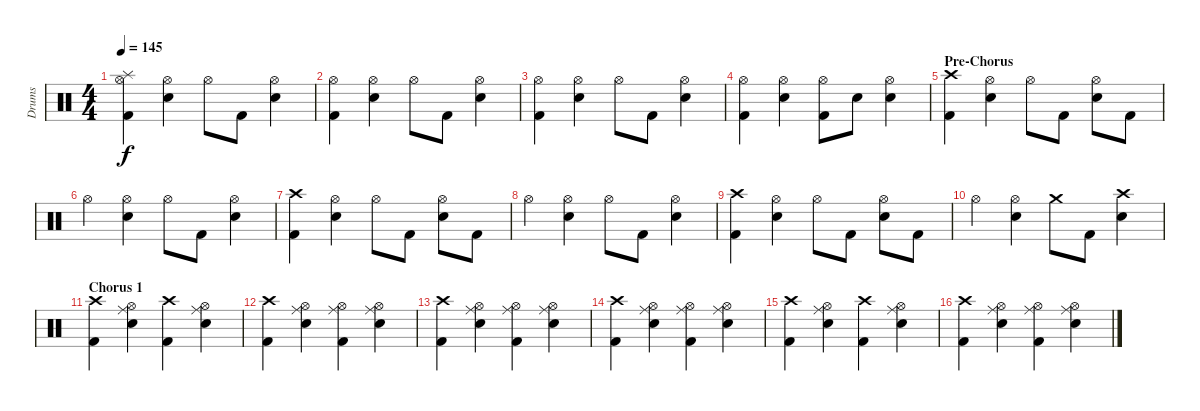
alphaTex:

\track ("Drums" "Drums") {instrument percussion}
\staff {score}
\articulation defaults
\ts (4 4)
\tempo 145
\clef neutral
\ks c
("Splash (hit)" "Hi-Hat (open)" "Kick (hit) 2").4{dy f} ("Hi-Hat (open)" "Snare (hit) 2").4 "Hi-Hat (open)".8 "Kick (hit) 2".8 ("Hi-Hat (open)" "Snare (hit) 2").4 |
("Hi-Hat (open)" "Kick (hit) 2").4 ("Hi-Hat (open)" "Snare (hit) 2").4 "Hi-Hat (open)".8 "Kick (hit) 2".8 ("Hi-Hat (open)" "Snare (hit) 2").4 |
("Hi-Hat (open)" "Kick (hit) 2").4 ("Hi-Hat (open)" "Snare (hit) 2").4 "Hi-Hat (open)".8 "Kick (hit) 2".8 ("Hi-Hat (open)" "Snare (hit) 2").4 |
("Hi-Hat (open)" "Kick (hit) 2").4 ("Hi-Hat (open)" "Snare (hit) 2").4 ("Hi-Hat (open)" "Kick (hit) 2").8 "Snare (hit) 2".8 ("Hi-Hat (open)" "Snare (hit) 2").4 |
\section ("" "Pre-Chorus")
("Crash high (hit)" "Kick (hit) 2").4 ("Hi-Hat (open)" "Snare (hit) 2").4 "Hi-Hat (open)".8 "Kick (hit) 2".8 ("Hi-Hat (open)" "Snare (hit) 2").8 "Kick (hit) 2".8 |
"Hi-Hat (open)".4 ("Hi-Hat (open)" "Snare (hit) 2").4 "Hi-Hat (open)".8 "Kick (hit) 2".8 ("Hi-Hat (open)" "Snare (hit) 2").4 |
("Crash high (hit)" "Kick (hit) 2").4 ("Hi-Hat (open)" "Snare (hit) 2").4 "Hi-Hat (open)".8 "Kick (hit) 2".8 ("Hi-Hat (open)" "Snare (hit) 2").8 "Kick (hit) 2".8 |
"Hi-Hat (open)".4 ("Hi-Hat (open)" "Snare (hit) 2").4 "Hi-Hat (open)".8 "Kick (hit) 2".8 ("Hi-Hat (open)" "Snare (hit) 2").4 |
("Crash high (hit)" "Kick (hit) 2").4 ("Hi-Hat (open)" "Snare (hit) 2").4 "Hi-Hat (open)".8 "Kick (hit) 2".8 ("Hi-Hat (open)" "Snare (hit) 2").8 "Kick (hit) 2".8 |
"Hi-Hat (open)".4 ("Hi-Hat (open)" "Snare (hit) 2").4 "Crash medium (hit)".8 "Kick (hit) 2".8 ("Crash high (hit)" "Snare (hit) 2").4 |
\section ("" "Chorus 1")
("Crash high (hit)" "Kick (hit) 2").4 ("Hi-Hat (open)" "Ride (middle)" "Snare (hit) 2").4 ("Crash high (hit)" "Kick (hit) 2").4 ("Hi-Hat (open)" "Ride (middle)" "Snare (hit) 2").4 |
("Crash high (hit)" "Kick (hit) 2").4 ("Hi-Hat (open)" "Ride (middle)" "Snare (hit) 2").4 ("Hi-Hat (open)" "Ride (middle)" "Kick (hit) 2").4 ("Hi-Hat (open)" "Ride (middle)" "Snare (hit) 2").4 |
("Crash high (hit)" "Kick (hit) 2").4 ("Hi-Hat (open)" "Ride (middle)" "Snare (hit) 2").4 ("Hi-Hat (open)" "Ride (middle)" "Kick (hit) 2").4 ("Hi-Hat (open)" "Ride (middle)" "Snare (hit) 2").4 |
("Crash high (hit)" "Kick (hit) 2").4 ("Hi-Hat (open)" "Ride (middle)" "Snare (hit) 2").4 ("Hi-Hat (open)" "Ride (middle)" "Kick (hit) 2").4 ("Hi-Hat (open)" "Ride (middle)" "Snare (hit) 2").4 |
("Crash high (hit)" "Kick (hit) 2").4 ("Hi-Hat (open)" "Ride (middle)" "Snare (hit) 2").4 ("Crash high (hit)" "Kick (hit) 2").4 ("Hi-Hat (open)" "Ride (middle)" "Snare (hit) 2").4 |
("Crash high (hit)" "Kick (hit) 2").4 ("Hi-Hat (open)" "Ride (middle)" "Snare (hit) 2").4 ("Hi-Hat (open)" "Ride (middle)" "Kick (hit) 2").4 ("Hi-Hat (open)" "Ride (middle)" "Snare (hit) 2").4
